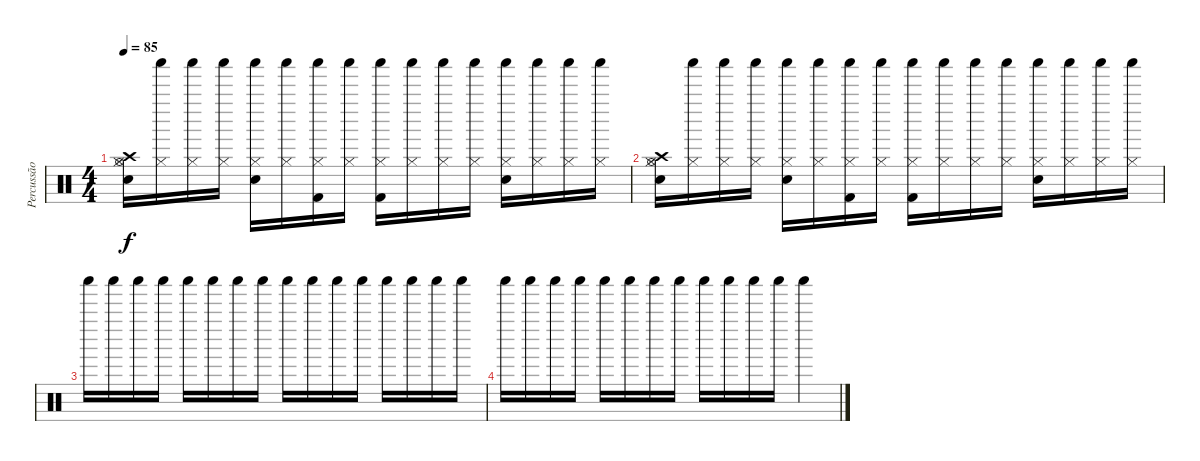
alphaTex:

\track ("Percussão" "Percussão") {instrument percussion}
\staff {score}
\articulation defaults
\ts (4 4)
\tempo 85
\clef neutral
\ks c
("Hi-Hat (open)" "Crash high (hit)" "Hi-Hat (closed)" "Snare (hit) 2").16{dy f} ("Shaker (hit)" "Hi-Hat (closed)").16 ("Shaker (hit)" "Hi-Hat (closed)").16 ("Shaker (hit)" "Hi-Hat (closed)").16 ("Shaker (hit)" "Hi-Hat (closed)" "Snare (hit) 2").16 ("Shaker (hit)" "Hi-Hat (closed)").16 ("Shaker (hit)" "Hi-Hat (closed)" "Kick (hit) 2").16 ("Shaker (hit)" "Hi-Hat (closed)").16 ("Shaker (hit)" "Hi-Hat (closed)" "Kick (hit) 2").16 ("Shaker (hit)" "Hi-Hat (closed)").16 ("Shaker (hit)" "Hi-Hat (closed)").16 ("Shaker (hit)" "Hi-Hat (closed)").16 ("Shaker (hit)" "Hi-Hat (closed)" "Snare (hit) 2").16 ("Shaker (hit)" "Hi-Hat (closed)").16 ("Shaker (hit)" "Hi-Hat (closed)").16 ("Shaker (hit)" "Hi-Hat (closed)").16 |
("Hi-Hat (open)" "Crash high (hit)" "Hi-Hat (closed)" "Snare (hit) 2").16 ("Shaker (hit)" "Hi-Hat (closed)").16 ("Shaker (hit)" "Hi-Hat (closed)").16 ("Shaker (hit)" "Hi-Hat (closed)").16 ("Shaker (hit)" "Hi-Hat (closed)" "Snare (hit) 2").16 ("Shaker (hit)" "Hi-Hat (closed)").16 ("Shaker (hit)" "Hi-Hat (closed)" "Kick (hit) 2").16 ("Shaker (hit)" "Hi-Hat (closed)").16 ("Shaker (hit)" "Hi-Hat (closed)" "Kick (hit) 2").16 ("Shaker (hit)" "Hi-Hat (closed)").16 ("Shaker (hit)" "Hi-Hat (closed)").16 ("Shaker (hit)" "Hi-Hat (closed)").16 ("Shaker (hit)" "Hi-Hat (closed)" "Snare (hit) 2").16 ("Shaker (hit)" "Hi-Hat (closed)").16 ("Shaker (hit)" "Hi-Hat (closed)").16 ("Shaker (hit)" "Hi-Hat (closed)").16 |
"Shaker (hit)".16 "Shaker (hit)".16 "Shaker (hit)".16 "Shaker (hit)".16 "Shaker (hit)".16 "Shaker (hit)".16 "Shaker (hit)".16 "Shaker (hit)".16 "Shaker (hit)".16 "Shaker (hit)".16 "Shaker (hit)".16 "Shaker (hit)".16 "Shaker (hit)".16 "Shaker (hit)".16 "Shaker (hit)".16 "Shaker (hit)".16 |
"Shaker (hit)".16 "Shaker (hit)".16 "Shaker (hit)".16 "Shaker (hit)".16 "Shaker (hit)".16 "Shaker (hit)".16 "Shaker (hit)".16 "Shaker (hit)".16 "Shaker (hit)".16 "Shaker (hit)".16 "Shaker (hit)".16 "Shaker (hit)".16 "Shaker (hit)".4
